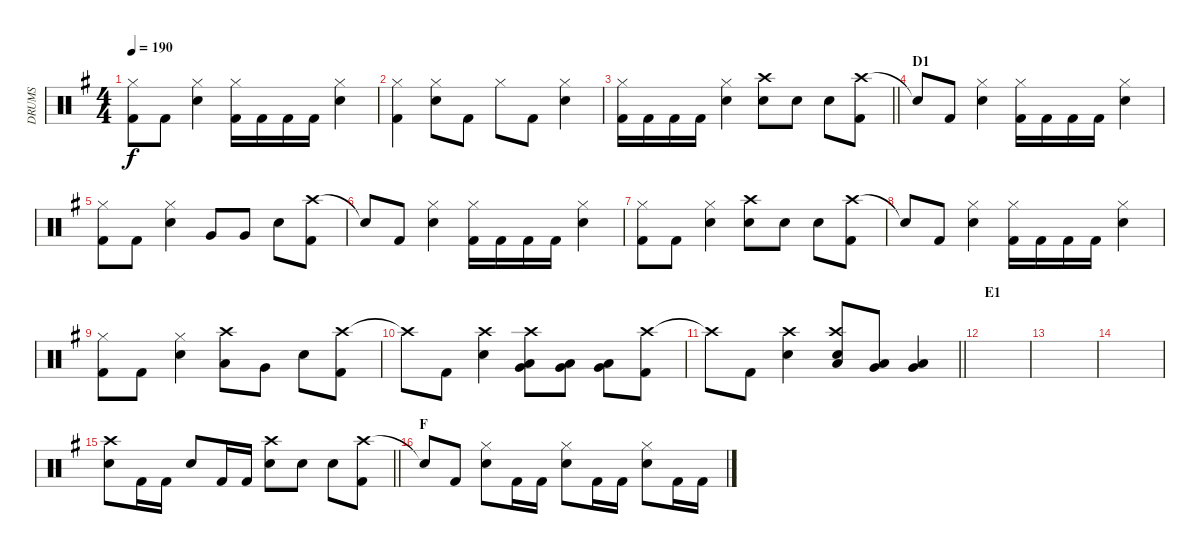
\track ("DRUMS" "DRUMS") {instrument percussion}
\staff {score}
\articulation defaults
\ts (4 4)
\tempo 190
\clef neutral
\ks g
("Hi-Hat (closed)" "Kick (hit) 2").8{dy f} "Kick (hit) 2".8 ("Hi-Hat (closed)" "Snare (hit) 2").4 ("Hi-Hat (closed)" "Kick (hit) 2").16 "Kick (hit) 2".16 "Kick (hit) 2".16 "Kick (hit) 2".16 ("Hi-Hat (closed)" "Snare (hit) 2").4 |
("Hi-Hat (closed)" "Kick (hit) 2").4 ("Hi-Hat (closed)" "Snare (hit) 2").8 "Kick (hit) 2".8 "Hi-Hat (closed)".8 "Kick (hit) 2".8 ("Hi-Hat (closed)" "Snare (hit) 2").4 |
\barLineRight lightlight
("Hi-Hat (closed)" "Kick (hit) 2").16 "Kick (hit) 2".16 "Kick (hit) 2".16 "Kick (hit) 2".16 ("Hi-Hat (closed)" "Snare (hit) 2").4 ("Crash high (hit)" "Snare (hit) 2").8 "Snare (hit) 2".8 "Snare (hit) 2".8 ("Crash high (hit)" "Kick (hit) 2").8 |
\section ("" "D1")
"Snare (hit)"{t}.8 "Kick (hit) 2".8 ("Hi-Hat (closed)" "Snare (hit) 2").4 ("Hi-Hat (closed)" "Kick (hit) 2").16 "Kick (hit) 2".16 "Kick (hit) 2".16 "Kick (hit) 2".16 ("Hi-Hat (closed)" "Snare (hit) 2").4 |
("Hi-Hat (closed)" "Kick (hit) 2").8 "Kick (hit) 2".8 ("Hi-Hat (closed)" "Snare (hit) 2").4 "Very Low Tom (hit)".8 "Very Low Tom (hit)".8 "Snare (hit) 2".8 ("Crash high (hit)" "Kick (hit) 2").8 |
"Snare (hit)"{t}.8 "Kick (hit) 2".8 ("Hi-Hat (closed)" "Snare (hit) 2").4 ("Hi-Hat (closed)" "Kick (hit) 2").16 "Kick (hit) 2".16 "Kick (hit) 2".16 "Kick (hit) 2".16 ("Hi-Hat (closed)" "Snare (hit) 2").4 |
("Hi-Hat (closed)" "Kick (hit) 2").8 "Kick (hit) 2".8 ("Hi-Hat (closed)" "Snare (hit) 2").4 ("Crash high (hit)" "Snare (hit) 2").8 "Snare (hit) 2".8 "Snare (hit) 2".8 ("Crash high (hit)" "Kick (hit) 2").8 |
"Snare (hit)"{t}.8 "Kick (hit) 2".8 ("Hi-Hat (closed)" "Snare (hit) 2").4 ("Hi-Hat (closed)" "Kick (hit) 2").16 "Kick (hit) 2".16 "Kick (hit) 2".16 "Kick (hit) 2".16 ("Hi-Hat (closed)" "Snare (hit) 2").4 |
("Hi-Hat (closed)" "Kick (hit) 2").8 "Kick (hit) 2".8 ("Hi-Hat (closed)" "Snare (hit) 2").4 ("Crash high (hit)" "Low Tom (hit)").8 "Very Low Tom (hit)".8 "Snare (hit) 2".8 ("Crash high (hit)" "Kick (hit) 2").8 |
"Crash high (hit)"{t}.8 "Kick (hit) 2".8 ("Crash high (hit)" "Snare (hit) 2").4 ("Crash high (hit)" "Very Low Tom (hit)" "Low Tom (hit)").8 ("Very Low Tom (hit)" "Low Tom (hit)").8 ("Very Low Tom (hit)" "Low Tom (hit)").8 ("Crash high (hit)" "Kick (hit) 2").8 |
\barLineRight lightlight "Crash high (hit)"{t}.8 "Kick (hit) 2".8
("Crash high (hit)" "Snare (hit) 2").4 ("Crash high (hit)" "Snare (hit) 2" "Low Tom (hit)").8 ("Very Low Tom (hit)" "Low Tom (hit)").8 ("Very Low Tom (hit)" "Low Tom (hit)").4 |
\section ("" "E1")
|
|
|
\barLineRight lightlight
("Crash high (hit)" "Snare (hit) 2").8 "Kick (hit) 2".16 "Kick (hit) 2".16 "Snare (hit) 2".8 "Kick (hit) 2".16 "Kick (hit) 2".16 ("Crash high (hit)" "Snare (hit) 2").8 "Snare (hit) 2".8 "Snare (hit) 2".8 ("Crash high (hit)" "Kick (hit) 2").8 |
\section ("" "F")
"Snare (hit)"{t}.8 "Kick (hit) 2".8 ("Hi-Hat (closed)" "Snare (hit) 2").8 "Kick (hit) 2".16 "Kick (hit) 2".16 ("Hi-Hat (closed)" "Snare (hit) 2").8 "Kick (hit) 2".16 "Kick (hit) 2".16 ("Hi-Hat (closed)" "Snare (hit) 2").8 "Kick (hit) 2".16 "Kick (hit) 2".16
